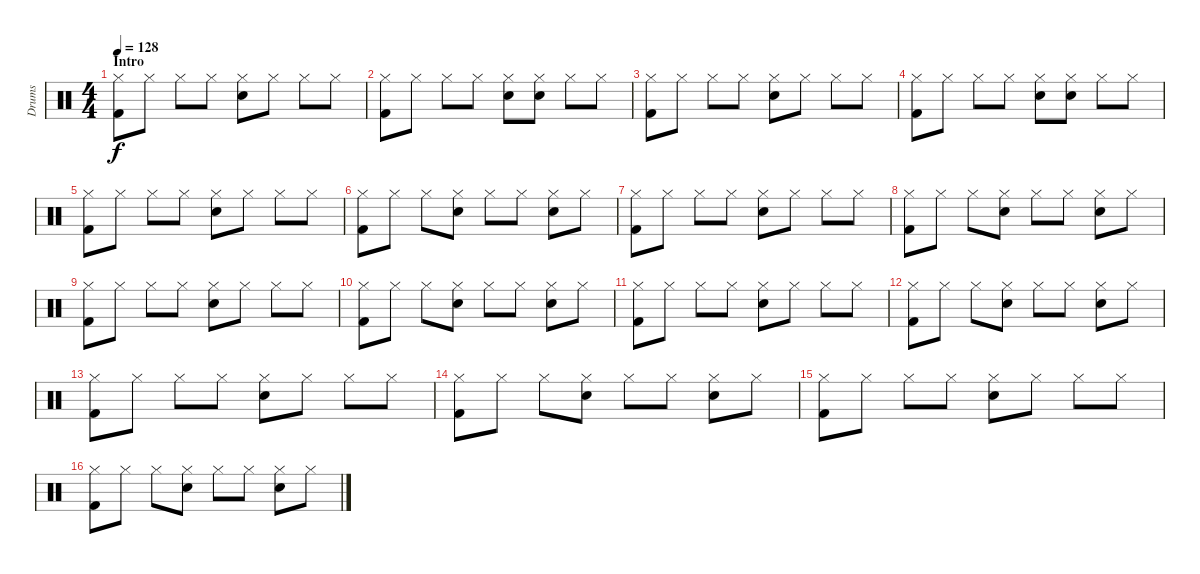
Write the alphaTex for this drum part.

\track ("Drums" "Drums") {instrument percussion}
\staff {score}
\articulation defaults
\ts (4 4)
\section ("" "Intro")
\tempo 128
\clef neutral
\ks c
("Hi-Hat (closed)" "Kick (hit) 2").8{dy f} "Hi-Hat (closed)".8 "Hi-Hat (closed)".8 "Hi-Hat (closed)".8 ("Hi-Hat (closed)" "Snare (hit) 2").8 "Hi-Hat (closed)".8 "Hi-Hat (closed)".8 "Hi-Hat (closed)".8 |
("Hi-Hat (closed)" "Kick (hit) 2").8 "Hi-Hat (closed)".8 "Hi-Hat (closed)".8 "Hi-Hat (closed)".8 ("Hi-Hat (closed)" "Snare (hit) 2").8 ("Hi-Hat (closed)" "Snare (hit) 2").8 "Hi-Hat (closed)".8 "Hi-Hat (closed)".8 |
("Hi-Hat (closed)" "Kick (hit) 2").8 "Hi-Hat (closed)".8 "Hi-Hat (closed)".8 "Hi-Hat (closed)".8 ("Hi-Hat (closed)" "Snare (hit) 2").8 "Hi-Hat (closed)".8 "Hi-Hat (closed)".8 "Hi-Hat (closed)".8 |
("Hi-Hat (closed)" "Kick (hit) 2").8 "Hi-Hat (closed)".8 "Hi-Hat (closed)".8 "Hi-Hat (closed)".8 ("Hi-Hat (closed)" "Snare (hit) 2").8 ("Hi-Hat (closed)" "Snare (hit) 2").8 "Hi-Hat (closed)".8 "Hi-Hat (closed)".8 |
("Hi-Hat (closed)" "Kick (hit) 2").8 "Hi-Hat (closed)".8 "Hi-Hat (closed)".8 "Hi-Hat (closed)".8 ("Hi-Hat (closed)" "Snare (hit) 2").8 "Hi-Hat (closed)".8 "Hi-Hat (closed)".8 "Hi-Hat (closed)".8 |
("Hi-Hat (closed)" "Kick (hit) 2").8 "Hi-Hat (closed)".8 "Hi-Hat (closed)".8 ("Hi-Hat (closed)" "Snare (hit) 2").8 "Hi-Hat (closed)".8 "Hi-Hat (closed)".8 ("Hi-Hat (closed)" "Snare (hit) 2").8 "Hi-Hat (closed)".8 |
("Hi-Hat (closed)" "Kick (hit) 2").8 "Hi-Hat (closed)".8 "Hi-Hat (closed)".8 "Hi-Hat (closed)".8 ("Hi-Hat (closed)" "Snare (hit) 2").8 "Hi-Hat (closed)".8 "Hi-Hat (closed)".8 "Hi-Hat (closed)".8 |
("Hi-Hat (closed)" "Kick (hit) 2").8 "Hi-Hat (closed)".8 "Hi-Hat (closed)".8 ("Hi-Hat (closed)" "Snare (hit) 2").8 "Hi-Hat (closed)".8 "Hi-Hat (closed)".8 ("Hi-Hat (closed)" "Snare (hit) 2").8 "Hi-Hat (closed)".8 |
("Hi-Hat (closed)" "Kick (hit) 2").8 "Hi-Hat (closed)".8 "Hi-Hat (closed)".8 "Hi-Hat (closed)".8 ("Hi-Hat (closed)" "Snare (hit) 2").8 "Hi-Hat (closed)".8 "Hi-Hat (closed)".8 "Hi-Hat (closed)".8 |
("Hi-Hat (closed)" "Kick (hit) 2").8 "Hi-Hat (closed)".8 "Hi-Hat (closed)".8 ("Hi-Hat (closed)" "Snare (hit) 2").8 "Hi-Hat (closed)".8 "Hi-Hat (closed)".8 ("Hi-Hat (closed)" "Snare (hit) 2").8 "Hi-Hat (closed)".8 |
("Hi-Hat (closed)" "Kick (hit) 2").8 "Hi-Hat (closed)".8 "Hi-Hat (closed)".8 "Hi-Hat (closed)".8 ("Hi-Hat (closed)" "Snare (hit) 2").8 "Hi-Hat (closed)".8 "Hi-Hat (closed)".8 "Hi-Hat (closed)".8 |
("Hi-Hat (closed)" "Kick (hit) 2").8 "Hi-Hat (closed)".8 "Hi-Hat (closed)".8 ("Hi-Hat (closed)" "Snare (hit) 2").8 "Hi-Hat (closed)".8 "Hi-Hat (closed)".8 ("Hi-Hat (closed)" "Snare (hit) 2").8 "Hi-Hat (closed)".8 |
("Hi-Hat (closed)" "Kick (hit) 2").8 "Hi-Hat (closed)".8 "Hi-Hat (closed)".8 "Hi-Hat (closed)".8 ("Hi-Hat (closed)" "Snare (hit) 2").8 "Hi-Hat (closed)".8 "Hi-Hat (closed)".8 "Hi-Hat (closed)".8 |
("Hi-Hat (closed)" "Kick (hit) 2").8 "Hi-Hat (closed)".8 "Hi-Hat (closed)".8 ("Hi-Hat (closed)" "Snare (hit) 2").8 "Hi-Hat (closed)".8 "Hi-Hat (closed)".8 ("Hi-Hat (closed)" "Snare (hit) 2").8 "Hi-Hat (closed)".8 |
("Hi-Hat (closed)" "Kick (hit) 2").8 "Hi-Hat (closed)".8 "Hi-Hat (closed)".8 "Hi-Hat (closed)".8 ("Hi-Hat (closed)" "Snare (hit) 2").8 "Hi-Hat (closed)".8 "Hi-Hat (closed)".8 "Hi-Hat (closed)".8 |
("Hi-Hat (closed)" "Kick (hit) 2").8 "Hi-Hat (closed)".8 "Hi-Hat (closed)".8 ("Hi-Hat (closed)" "Snare (hit) 2").8 "Hi-Hat (closed)".8 "Hi-Hat (closed)".8 ("Hi-Hat (closed)" "Snare (hit) 2").8 "Hi-Hat (closed)".8
